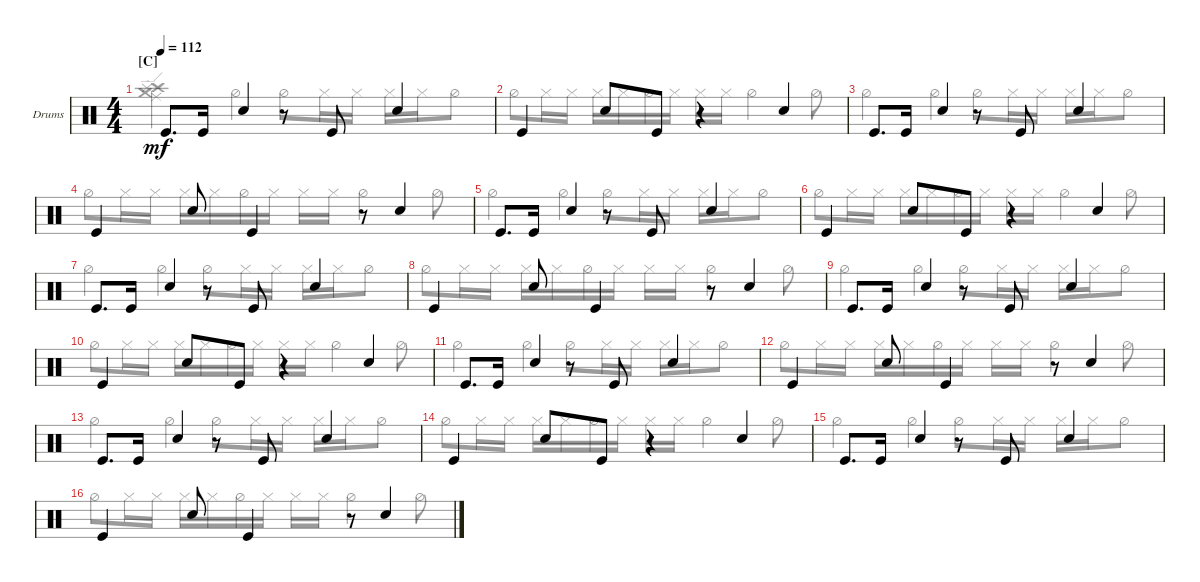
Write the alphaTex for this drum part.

\defaultSystemsLayout 4
\bracketExtendMode groupsimilarinstruments
\firstSystemTrackNameOrientation horizontal
\otherSystemsTrackNameOrientation horizontal
\track ("Drumkit" "Drums") {multiBarRest instrument percussion}
\staff {score}
\articulation defaults
\voice
\ts (4 4)
\section ("C" "")
\tempo 112
\clef neutral
\ks c "Kick (hit)".8{d dy mf} "Kick (hit)".16 "Snare (hit) 2".4
r.8 "Kick (hit)".8 "Snare (hit) 2".4 |
"Kick (hit)".4 "Snare (hit) 2".8 "Kick (hit)".8 r.4 "Snare (hit) 2".4 |
"Kick (hit)".8{d} "Kick (hit)".16 "Snare (hit) 2".4 r.8 "Kick (hit)".8 "Snare (hit) 2".4 |
"Kick (hit)".4 "Snare (hit) 2".8 "Kick (hit)".4 r.8 "Snare (hit) 2".4 |
"Kick (hit)".8{d} "Kick (hit)".16 "Snare (hit) 2".4 r.8 "Kick (hit)".8 "Snare (hit) 2".4 |
"Kick (hit)".4 "Snare (hit) 2".8 "Kick (hit)".8 r.4 "Snare (hit) 2".4 |
"Kick (hit)".8{d} "Kick (hit)".16 "Snare (hit) 2".4 r.8 "Kick (hit)".8 "Snare (hit) 2".4 |
"Kick (hit)".4 "Snare (hit) 2".8 "Kick (hit)".4 r.8 "Snare (hit) 2".4 |
"Kick (hit)".8{d} "Kick (hit)".16 "Snare (hit) 2".4 r.8 "Kick (hit)".8 "Snare (hit) 2".4 |
"Kick (hit)".4 "Snare (hit) 2".8 "Kick (hit)".8 r.4 "Snare (hit) 2".4 |
"Kick (hit)".8{d} "Kick (hit)".16 "Snare (hit) 2".4 r.8 "Kick (hit)".8 "Snare (hit) 2".4 |
"Kick (hit)".4 "Snare (hit) 2".8 "Kick (hit)".4 r.8 "Snare (hit) 2".4 |
"Kick (hit)".8{d} "Kick (hit)".16 "Snare (hit) 2".4 r.8 "Kick (hit)".8 "Snare (hit) 2".4 |
"Kick (hit)".4 "Snare (hit) 2".8 "Kick (hit)".8 r.4 "Snare (hit) 2".4 |
"Kick (hit)".8{d} "Kick (hit)".16 "Snare (hit) 2".4 r.8 "Kick (hit)".8 "Snare (hit) 2".4 |
"Kick (hit)".4 "Snare (hit) 2".8 "Kick (hit)".4 r.8 "Snare (hit) 2".4
\voice
\clef neutral
\ottava regular
\simile none
\ks c
("Crash medium (hit)" "Ride (edge)" "Crash high (hit)" "Splash (hit)").4{dy mf} "Hi-Hat (half)".4 "Hi-Hat (half)".8 "Hi-Hat (closed)".16 "Hi-Hat (closed)".16 "Hi-Hat (closed)".16 "Hi-Hat (closed)".16 "Hi-Hat (half)".8 |
"Hi-Hat (half)".8 "Hi-Hat (closed)".16 "Hi-Hat (closed)".16 "Hi-Hat (closed)".16 "Hi-Hat (closed)".16 "Hi-Hat (half)".16 "Hi-Hat (closed)".16 "Hi-Hat (closed)".16 "Hi-Hat (closed)".16 "Hi-Hat (half)".4 "Hi-Hat (half)".8 |
"Hi-Hat (half)".4 "Hi-Hat (half)".4 "Hi-Hat (half)".8 "Hi-Hat (closed)".16 "Hi-Hat (closed)".16 "Hi-Hat (closed)".16 "Hi-Hat (closed)".16 "Hi-Hat (half)".8 |
"Hi-Hat (half)".8 "Hi-Hat (closed)".16 "Hi-Hat (closed)".16 "Hi-Hat (closed)".16 "Hi-Hat (closed)".16 "Hi-Hat (half)".16 "Hi-Hat (closed)".16 "Hi-Hat (closed)".16 "Hi-Hat (closed)".16 "Hi-Hat (half)".4 "Hi-Hat (half)".8 |
"Hi-Hat (half)".4 "Hi-Hat (half)".4 "Hi-Hat (half)".8 "Hi-Hat (closed)".16 "Hi-Hat (closed)".16 "Hi-Hat (closed)".16 "Hi-Hat (closed)".16 "Hi-Hat (half)".8 |
"Hi-Hat (half)".8 "Hi-Hat (closed)".16 "Hi-Hat (closed)".16 "Hi-Hat (closed)".16 "Hi-Hat (closed)".16 "Hi-Hat (half)".16 "Hi-Hat (closed)".16 "Hi-Hat (closed)".16 "Hi-Hat (closed)".16 "Hi-Hat (half)".4 "Hi-Hat (half)".8 |
"Hi-Hat (half)".4 "Hi-Hat (half)".4 "Hi-Hat (half)".8 "Hi-Hat (closed)".16 "Hi-Hat (closed)".16 "Hi-Hat (closed)".16 "Hi-Hat (closed)".16 "Hi-Hat (half)".8 |
"Hi-Hat (half)".8 "Hi-Hat (closed)".16 "Hi-Hat (closed)".16 "Hi-Hat (closed)".16 "Hi-Hat (closed)".16 "Hi-Hat (half)".16 "Hi-Hat (closed)".16 "Hi-Hat (closed)".16 "Hi-Hat (closed)".16 "Hi-Hat (half)".4 "Hi-Hat (half)".8 |
"Hi-Hat (half)".4 "Hi-Hat (half)".4 "Hi-Hat (half)".8 "Hi-Hat (closed)".16 "Hi-Hat (closed)".16 "Hi-Hat (closed)".16 "Hi-Hat (closed)".16 "Hi-Hat (half)".8 |
"Hi-Hat (half)".8 "Hi-Hat (closed)".16 "Hi-Hat (closed)".16 "Hi-Hat (closed)".16 "Hi-Hat (closed)".16 "Hi-Hat (half)".16 "Hi-Hat (closed)".16 "Hi-Hat (closed)".16 "Hi-Hat (closed)".16 "Hi-Hat (half)".4 "Hi-Hat (half)".8 |
"Hi-Hat (half)".4 "Hi-Hat (half)".4 "Hi-Hat (half)".8 "Hi-Hat (closed)".16 "Hi-Hat (closed)".16 "Hi-Hat (closed)".16 "Hi-Hat (closed)".16 "Hi-Hat (half)".8 |
"Hi-Hat (half)".8 "Hi-Hat (closed)".16 "Hi-Hat (closed)".16 "Hi-Hat (closed)".16 "Hi-Hat (closed)".16 "Hi-Hat (half)".16 "Hi-Hat (closed)".16 "Hi-Hat (closed)".16 "Hi-Hat (closed)".16 "Hi-Hat (half)".4 "Hi-Hat (half)".8 |
"Hi-Hat (half)".4 "Hi-Hat (half)".4 "Hi-Hat (half)".8 "Hi-Hat (closed)".16 "Hi-Hat (closed)".16 "Hi-Hat (closed)".16 "Hi-Hat (closed)".16 "Hi-Hat (half)".8 |
"Hi-Hat (half)".8 "Hi-Hat (closed)".16 "Hi-Hat (closed)".16 "Hi-Hat (closed)".16 "Hi-Hat (closed)".16 "Hi-Hat (half)".16 "Hi-Hat (closed)".16 "Hi-Hat (closed)".16 "Hi-Hat (closed)".16 "Hi-Hat (half)".4 "Hi-Hat (half)".8 |
"Hi-Hat (half)".4 "Hi-Hat (half)".4 "Hi-Hat (half)".8 "Hi-Hat (closed)".16 "Hi-Hat (closed)".16 "Hi-Hat (closed)".16 "Hi-Hat (closed)".16 "Hi-Hat (half)".8 |
"Hi-Hat (half)".8 "Hi-Hat (closed)".16 "Hi-Hat (closed)".16 "Hi-Hat (closed)".16 "Hi-Hat (closed)".16 "Hi-Hat (half)".16 "Hi-Hat (closed)".16 "Hi-Hat (closed)".16 "Hi-Hat (closed)".16 "Hi-Hat (half)".4 "Hi-Hat (half)".8
